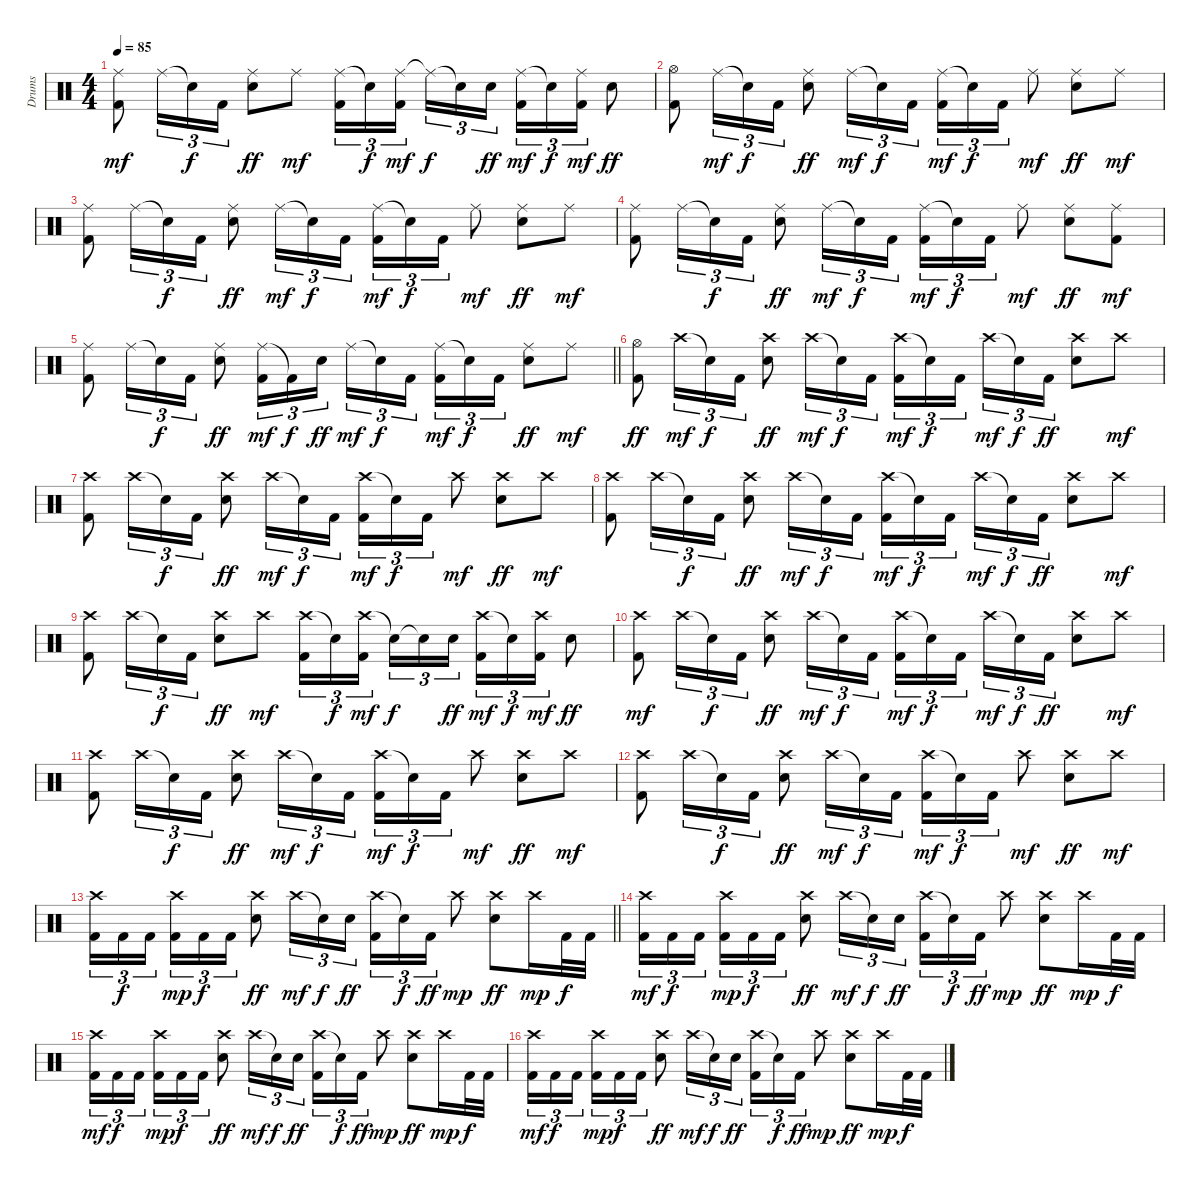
\track ("Drums" "Drums") {instrument percussion}
\staff {score}
\articulation defaults
\ts (4 4)
\tempo 85
\clef neutral
\ks c
("Ride (middle)" "Kick (hit) 2").8{dy mf} "Ride (middle)".16{tu (3 2)} "Snare (hit)"{t}.16{tu (3 2) dy f} "Kick (hit) 2".16{tu (3 2)} ("Ride (middle)" "Snare (hit) 2").8{dy ff} "Ride (middle)".8{dy mf} ("Ride (middle)" "Kick (hit) 2").16{tu (3 2)} "Snare (hit)"{t}.16{tu (3 2) dy f} ("Ride (middle)" "Kick (hit) 2").16{tu (3 2) dy mf beam splitsecondary} "Ride (middle)"{t}.16{tu (3 2) dy f} "Snare (hit)"{t}.16{tu (3 2)} "Snare (hit) 2".16{tu (3 2) dy ff} ("Ride (middle)" "Kick (hit) 2").16{tu (3 2) dy mf} "Snare (hit)"{t}.16{tu (3 2) dy f} ("Ride (middle)" "Kick (hit) 2").16{tu (3 2) dy mf} "Snare (hit) 2".8{dy ff} |
("Hi-Hat (open)" "Kick (hit) 2").8 "Ride (middle)".16{tu (3 2) dy mf} "Snare (hit)"{t}.16{tu (3 2) dy f} "Kick (hit) 2".16{tu (3 2)} ("Ride (middle)" "Snare (hit) 2").8{dy ff} "Ride (middle)".16{tu (3 2) dy mf} "Snare (hit)"{t}.16{tu (3 2) dy f} "Kick (hit) 2".16{tu (3 2)} ("Ride (middle)" "Kick (hit) 2").16{tu (3 2) dy mf} "Snare (hit)"{t}.16{tu (3 2) dy f} "Kick (hit) 2".16{tu (3 2)} "Ride (middle)".8{dy mf} ("Ride (middle)" "Snare (hit) 2").8{dy ff} "Ride (middle)".8{dy mf} |
("Ride (middle)" "Kick (hit) 2").8 "Ride (middle)".16{tu (3 2)} "Snare (hit)"{t}.16{tu (3 2) dy f} "Kick (hit) 2".16{tu (3 2)} ("Ride (middle)" "Snare (hit) 2").8{dy ff} "Ride (middle)".16{tu (3 2) dy mf} "Snare (hit)"{t}.16{tu (3 2) dy f} "Kick (hit) 2".16{tu (3 2)} ("Ride (middle)" "Kick (hit) 2").16{tu (3 2) dy mf} "Snare (hit)"{t}.16{tu (3 2) dy f} "Kick (hit) 2".16{tu (3 2)} "Ride (middle)".8{dy mf} ("Ride (middle)" "Snare (hit) 2").8{dy ff} "Ride (middle)".8{dy mf} |
("Ride (middle)" "Kick (hit) 2").8 "Ride (middle)".16{tu (3 2)} "Snare (hit)"{t}.16{tu (3 2) dy f} "Kick (hit) 2".16{tu (3 2)} ("Ride (middle)" "Snare (hit) 2").8{dy ff} "Ride (middle)".16{tu (3 2) dy mf} "Snare (hit)"{t}.16{tu (3 2) dy f} "Kick (hit) 2".16{tu (3 2)} ("Ride (middle)" "Kick (hit) 2").16{tu (3 2) dy mf} "Snare (hit)"{t}.16{tu (3 2) dy f} "Kick (hit) 2".16{tu (3 2)} "Ride (middle)".8{dy mf} ("Ride (middle)" "Snare (hit) 2").8{dy ff} ("Ride (middle)" "Kick (hit) 2").8{dy mf} |
\barLineRight lightlight
("Ride (middle)" "Kick (hit) 2").8 "Ride (middle)".16{tu (3 2)} "Snare (hit)"{t}.16{tu (3 2) dy f} "Kick (hit) 2".16{tu (3 2)} ("Ride (middle)" "Snare (hit) 2").8{dy ff} ("Ride (middle)" "Kick (hit) 2").16{tu (3 2) dy mf} "Kick (hit) 2"{t}.16{tu (3 2) dy f} "Snare (hit) 2".16{tu (3 2) dy ff} "Ride (middle)".16{tu (3 2) dy mf} "Snare (hit)"{t}.16{tu (3 2) dy f} "Kick (hit) 2".16{tu (3 2) beam splitsecondary} ("Ride (middle)" "Kick (hit) 2").16{tu (3 2) dy mf} "Snare (hit)"{t}.16{tu (3 2) dy f} "Kick (hit) 2".16{tu (3 2)} ("Ride (middle)" "Snare (hit) 2").8{dy ff} "Ride (middle)".8{dy mf} |
("Hi-Hat (open)" "Kick (hit) 2").8{dy ff} "Crash high (hit)".16{tu (3 2) dy mf} "Snare (hit)"{t}.16{tu (3 2) dy f} "Kick (hit) 2".16{tu (3 2)} ("Crash high (hit)" "Snare (hit) 2").8{dy ff} "Crash high (hit)".16{tu (3 2) dy mf} "Snare (hit)"{t}.16{tu (3 2) dy f} "Kick (hit) 2".16{tu (3 2)} ("Crash high (hit)" "Kick (hit) 2").16{tu (3 2) dy mf} "Snare (hit)"{t}.16{tu (3 2) dy f} "Kick (hit) 2".16{tu (3 2) beam splitsecondary} "Crash high (hit)".16{tu (3 2) dy mf} "Snare (hit)"{t}.16{tu (3 2) dy f} "Kick (hit) 2".16{tu (3 2) dy ff} ("Crash high (hit)" "Snare (hit) 2").8 "Crash high (hit)".8{dy mf} |
("Crash high (hit)" "Kick (hit) 2").8 "Crash high (hit)".16{tu (3 2)} "Snare (hit)"{t}.16{tu (3 2) dy f} "Kick (hit) 2".16{tu (3 2)} ("Crash high (hit)" "Snare (hit) 2").8{dy ff} "Crash high (hit)".16{tu (3 2) dy mf} "Snare (hit)"{t}.16{tu (3 2) dy f} "Kick (hit) 2".16{tu (3 2)} ("Crash high (hit)" "Kick (hit) 2").16{tu (3 2) dy mf} "Snare (hit)"{t}.16{tu (3 2) dy f} "Kick (hit) 2".16{tu (3 2)} "Crash high (hit)".8{dy mf} ("Crash high (hit)" "Snare (hit) 2").8{dy ff} "Crash high (hit)".8{dy mf} |
("Crash high (hit)" "Kick (hit) 2").8 "Crash high (hit)".16{tu (3 2)} "Snare (hit)"{t}.16{tu (3 2) dy f} "Kick (hit) 2".16{tu (3 2)} ("Crash high (hit)" "Snare (hit) 2").8{dy ff} "Crash high (hit)".16{tu (3 2) dy mf} "Snare (hit)"{t}.16{tu (3 2) dy f} "Kick (hit) 2".16{tu (3 2)} ("Crash high (hit)" "Kick (hit) 2").16{tu (3 2) dy mf} "Snare (hit)"{t}.16{tu (3 2) dy f} "Kick (hit) 2".16{tu (3 2) beam splitsecondary} "Crash high (hit)".16{tu (3 2) dy mf} "Snare (hit)"{t}.16{tu (3 2) dy f} "Kick (hit) 2".16{tu (3 2) dy ff} ("Crash high (hit)" "Snare (hit) 2").8 "Crash high (hit)".8{dy mf} |
("Crash high (hit)" "Kick (hit) 2").8 "Crash high (hit)".16{tu (3 2)} "Snare (hit)"{t}.16{tu (3 2) dy f} "Kick (hit) 2".16{tu (3 2)} ("Crash high (hit)" "Snare (hit) 2").8{dy ff} "Crash high (hit)".8{dy mf} ("Crash high (hit)" "Kick (hit) 2").16{tu (3 2)} "Snare (hit)"{t}.16{tu (3 2) dy f} ("Crash high (hit)" "Kick (hit) 2").16{tu (3 2) dy mf beam splitsecondary} "Snare (hit)"{t}.16{tu (3 2) dy f} "Snare (hit)"{t}.16{tu (3 2)} "Snare (hit) 2".16{tu (3 2) dy ff} ("Crash high (hit)" "Kick (hit) 2").16{tu (3 2) dy mf} "Snare (hit)"{t}.16{tu (3 2) dy f} ("Crash high (hit)" "Kick (hit) 2").16{tu (3 2) dy mf} "Snare (hit) 2".8{dy ff} |
("Crash high (hit)" "Kick (hit) 2").8{dy mf} "Crash high (hit)".16{tu (3 2)} "Snare (hit)"{t}.16{tu (3 2) dy f} "Kick (hit) 2".16{tu (3 2)} ("Crash high (hit)" "Snare (hit) 2").8{dy ff} "Crash high (hit)".16{tu (3 2) dy mf} "Snare (hit)"{t}.16{tu (3 2) dy f} "Kick (hit) 2".16{tu (3 2)} ("Crash high (hit)" "Kick (hit) 2").16{tu (3 2) dy mf} "Snare (hit)"{t}.16{tu (3 2) dy f} "Kick (hit) 2".16{tu (3 2) beam splitsecondary} "Crash high (hit)".16{tu (3 2) dy mf} "Snare (hit)"{t}.16{tu (3 2) dy f} "Kick (hit) 2".16{tu (3 2) dy ff} ("Crash high (hit)" "Snare (hit) 2").8 "Crash high (hit)".8{dy mf} |
("Crash high (hit)" "Kick (hit) 2").8 "Crash high (hit)".16{tu (3 2)} "Snare (hit)"{t}.16{tu (3 2) dy f} "Kick (hit) 2".16{tu (3 2)} ("Crash high (hit)" "Snare (hit) 2").8{dy ff} "Crash high (hit)".16{tu (3 2) dy mf} "Snare (hit)"{t}.16{tu (3 2) dy f} "Kick (hit) 2".16{tu (3 2)} ("Crash high (hit)" "Kick (hit) 2").16{tu (3 2) dy mf} "Snare (hit)"{t}.16{tu (3 2) dy f} "Kick (hit) 2".16{tu (3 2)} "Crash high (hit)".8{dy mf} ("Crash high (hit)" "Snare (hit) 2").8{dy ff} "Crash high (hit)".8{dy mf} |
("Crash high (hit)" "Kick (hit) 2").8 "Crash high (hit)".16{tu (3 2)} "Snare (hit)"{t}.16{tu (3 2) dy f} "Kick (hit) 2".16{tu (3 2)} ("Crash high (hit)" "Snare (hit) 2").8{dy ff} "Crash high (hit)".16{tu (3 2) dy mf} "Snare (hit)"{t}.16{tu (3 2) dy f} "Kick (hit) 2".16{tu (3 2)} ("Crash high (hit)" "Kick (hit) 2").16{tu (3 2) dy mf} "Snare (hit)"{t}.16{tu (3 2) dy f} "Kick (hit) 2".16{tu (3 2)} "Crash high (hit)".8{dy mf} ("Crash high (hit)" "Snare (hit) 2").8{dy ff} "Crash high (hit)".8{dy mf} |
\barLineRight lightlight
("Crash high (hit)" "Kick (hit) 2").16{tu (3 2)} "Kick (hit) 2".16{tu (3 2) dy f} "Kick (hit) 2".16{tu (3 2) beam splitsecondary} ("Crash high (hit)" "Kick (hit) 2").16{tu (3 2) dy mp} "Kick (hit) 2".16{tu (3 2) dy f} "Kick (hit) 2".16{tu (3 2)} ("Crash high (hit)" "Snare (hit) 2").8{dy ff} "Crash high (hit)".16{tu (3 2) dy mf} "Snare (hit)"{t}.16{tu (3 2) dy f} "Snare (hit) 2".16{tu (3 2) dy ff} ("Crash high (hit)" "Kick (hit) 2").16{tu (3 2)} "Snare (hit)"{t}.16{tu (3 2) dy f} "Kick (hit) 2".16{tu (3 2) dy ff} "Crash high (hit)".8{dy mp} ("Crash high (hit)" "Snare (hit) 2").8{dy ff} "Crash high (hit)".16{dy mp} "Kick (hit) 2".32{dy f} "Kick (hit) 2".32 |
\section ("" "")
("Crash high (hit)" "Kick (hit) 2").16{tu (3 2) dy mf} "Kick (hit) 2".16{tu (3 2) dy f} "Kick (hit) 2".16{tu (3 2) beam splitsecondary} ("Crash high (hit)" "Kick (hit) 2").16{tu (3 2) dy mp} "Kick (hit) 2".16{tu (3 2) dy f} "Kick (hit) 2".16{tu (3 2)} ("Crash high (hit)" "Snare (hit) 2").8{dy ff} "Crash high (hit)".16{tu (3 2) dy mf} "Snare (hit)"{t}.16{tu (3 2) dy f} "Snare (hit) 2".16{tu (3 2) dy ff} ("Crash high (hit)" "Kick (hit) 2").16{tu (3 2)} "Snare (hit)"{t}.16{tu (3 2) dy f} "Kick (hit) 2".16{tu (3 2) dy ff} "Crash high (hit)".8{dy mp} ("Crash high (hit)" "Snare (hit) 2").8{dy ff} "Crash high (hit)".16{dy mp} "Kick (hit) 2".32{dy f} "Kick (hit) 2".32 |
("Crash high (hit)" "Kick (hit) 2").16{tu (3 2) dy mf} "Kick (hit) 2".16{tu (3 2) dy f} "Kick (hit) 2".16{tu (3 2) beam splitsecondary} ("Crash high (hit)" "Kick (hit) 2").16{tu (3 2) dy mp} "Kick (hit) 2".16{tu (3 2) dy f} "Kick (hit) 2".16{tu (3 2)} ("Crash high (hit)" "Snare (hit) 2").8{dy ff} "Crash high (hit)".16{tu (3 2) dy mf} "Snare (hit)"{t}.16{tu (3 2) dy f} "Snare (hit) 2".16{tu (3 2) dy ff} ("Crash high (hit)" "Kick (hit) 2").16{tu (3 2)} "Snare (hit)"{t}.16{tu (3 2) dy f} "Kick (hit) 2".16{tu (3 2) dy ff} "Crash high (hit)".8{dy mp} ("Crash high (hit)" "Snare (hit) 2").8{dy ff} "Crash high (hit)".16{dy mp} "Kick (hit) 2".32{dy f} "Kick (hit) 2".32 |
("Crash high (hit)" "Kick (hit) 2").16{tu (3 2) dy mf} "Kick (hit) 2".16{tu (3 2) dy f} "Kick (hit) 2".16{tu (3 2) beam splitsecondary} ("Crash high (hit)" "Kick (hit) 2").16{tu (3 2) dy mp} "Kick (hit) 2".16{tu (3 2) dy f} "Kick (hit) 2".16{tu (3 2)} ("Crash high (hit)" "Snare (hit) 2").8{dy ff} "Crash high (hit)".16{tu (3 2) dy mf} "Snare (hit)"{t}.16{tu (3 2) dy f} "Snare (hit) 2".16{tu (3 2) dy ff} ("Crash high (hit)" "Kick (hit) 2").16{tu (3 2)} "Snare (hit)"{t}.16{tu (3 2) dy f} "Kick (hit) 2".16{tu (3 2) dy ff} "Crash high (hit)".8{dy mp} ("Crash high (hit)" "Snare (hit) 2").8{dy ff} "Crash high (hit)".16{dy mp} "Kick (hit) 2".32{dy f} "Kick (hit) 2".32
